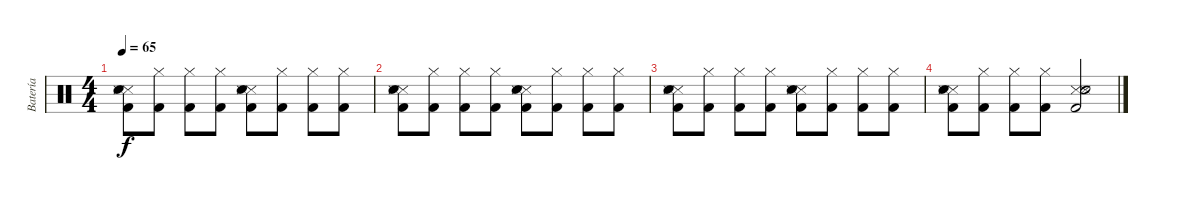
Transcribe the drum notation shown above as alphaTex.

\track ("Batería" "Batería") {instrument percussion}
\staff {score}
\articulation defaults
\ts (4 4)
\tempo 65
\clef neutral
\ks c
("Snare (side stick) 3" "Snare (side stick) 3" "Snare (hit) 2" "Kick (hit) 2").8{dy f} ("Hi-Hat (closed)" "Kick (hit) 2").8 ("Hi-Hat (closed)" "Kick (hit) 2").8 ("Hi-Hat (closed)" "Kick (hit) 2").8 ("Snare (side stick) 3" "Snare (side stick) 3" "Snare (hit) 2" "Kick (hit) 2").8 ("Hi-Hat (closed)" "Kick (hit) 2").8 ("Hi-Hat (closed)" "Kick (hit) 2").8 ("Hi-Hat (closed)" "Kick (hit) 2").8 |
("Snare (side stick) 3" "Snare (side stick) 3" "Snare (hit) 2" "Kick (hit) 2").8 ("Hi-Hat (closed)" "Kick (hit) 2").8 ("Hi-Hat (closed)" "Kick (hit) 2").8 ("Hi-Hat (closed)" "Kick (hit) 2").8 ("Snare (side stick) 3" "Snare (side stick) 3" "Snare (hit) 2" "Kick (hit) 2").8 ("Hi-Hat (closed)" "Kick (hit) 2").8 ("Hi-Hat (closed)" "Kick (hit) 2").8 ("Hi-Hat (closed)" "Kick (hit) 2").8 |
("Snare (side stick) 3" "Snare (side stick) 3" "Snare (hit) 2" "Kick (hit) 2").8 ("Hi-Hat (closed)" "Kick (hit) 2").8 ("Hi-Hat (closed)" "Kick (hit) 2").8 ("Hi-Hat (closed)" "Kick (hit) 2").8 ("Snare (side stick) 3" "Snare (side stick) 3" "Snare (hit) 2" "Kick (hit) 2").8 ("Hi-Hat (closed)" "Kick (hit) 2").8 ("Hi-Hat (closed)" "Kick (hit) 2").8 ("Hi-Hat (closed)" "Kick (hit) 2").8 |
("Snare (side stick) 3" "Snare (side stick) 3" "Snare (hit) 2" "Kick (hit) 2").8 ("Hi-Hat (closed)" "Kick (hit) 2").8 ("Hi-Hat (closed)" "Kick (hit) 2").8 ("Hi-Hat (closed)" "Kick (hit) 2").8 ("Snare (side stick) 3" "Snare (side stick) 3" "Snare (hit) 2" "Kick (hit) 2").2
